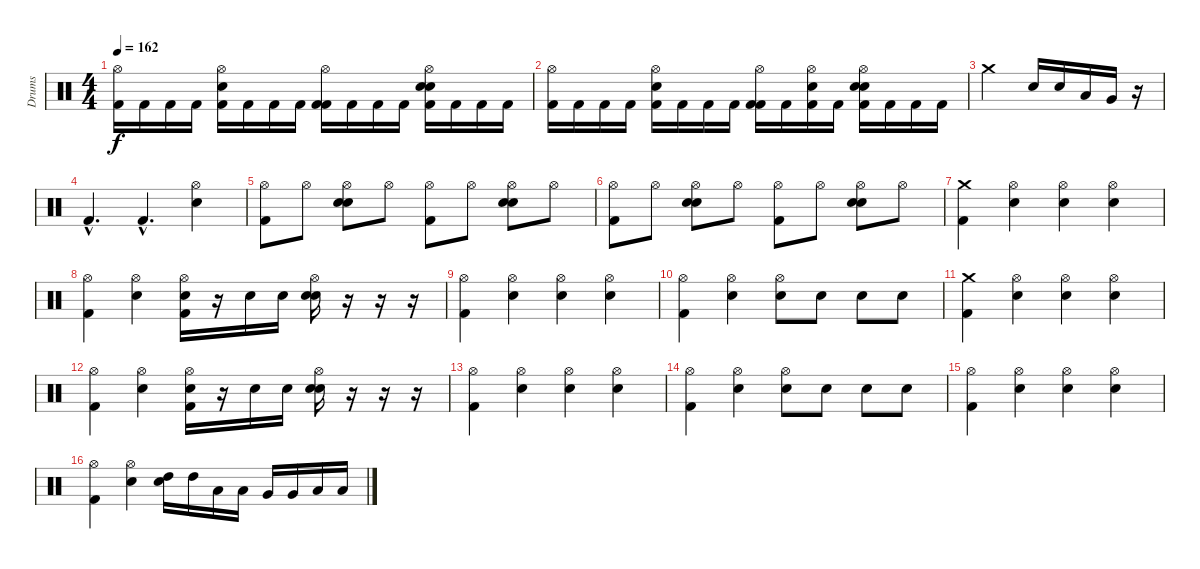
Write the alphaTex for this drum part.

\track ("Drums" "Drums") {instrument percussion}
\staff {score}
\articulation defaults
\ts (4 4)
\tempo 162
\clef neutral
\ks c
("Hi-Hat (open)" "Kick (hit) 2").16{dy f} "Kick (hit) 2".16 "Kick (hit) 2".16 "Kick (hit) 2".16 ("Kick (hit) 2" "Electric Snare (hit)" "Hi-Hat (open)").16 "Kick (hit) 2".16 "Kick (hit) 2".16 "Kick (hit) 2".16 ("Kick (hit) 2" "Hi-Hat (open)" "Kick (hit) 2").16 "Kick (hit) 2".16 "Kick (hit) 2".16 "Kick (hit) 2".16 ("Kick (hit) 2" "Electric Snare (hit)" "Hi-Hat (open)" "Snare (hit) 2").16 "Kick (hit) 2".16 "Kick (hit) 2".16 "Kick (hit) 2".16 |
("Hi-Hat (open)" "Kick (hit) 2").16 "Kick (hit) 2".16 "Kick (hit) 2".16 "Kick (hit) 2".16 ("Kick (hit) 2" "Electric Snare (hit)" "Hi-Hat (open)").16 "Kick (hit) 2".16 "Kick (hit) 2".16 "Kick (hit) 2".16 ("Kick (hit) 2" "Hi-Hat (open)" "Kick (hit) 2").16 "Kick (hit) 2".16 ("Kick (hit) 2" "Electric Snare (hit)" "Hi-Hat (open)").16 "Kick (hit) 2".16 ("Kick (hit) 2" "Electric Snare (hit)" "Hi-Hat (open)" "Snare (hit) 2").16 "Kick (hit) 2".16 "Kick (hit) 2".16 "Kick (hit) 2".16 |
"Crash medium (hit)".2 "Electric Snare (hit)".16 "Electric Snare (hit)".16 "Low Tom (hit)".16 "Very Low Tom (hit)".16 r.16 |
"Kick (hit) 2"{hac}.4{d} "Kick (hit) 2"{hac}.4{d} ("Hi-Hat (open)" "Electric Snare (hit)").4 |
("Hi-Hat (open)" "Kick (hit) 2").8 "Hi-Hat (open)".8 ("Electric Snare (hit)" "Hi-Hat (open)" "Snare (hit) 2").8 "Hi-Hat (open)".8 ("Hi-Hat (open)" "Kick (hit) 2").8 "Hi-Hat (open)".8 ("Electric Snare (hit)" "Hi-Hat (open)" "Snare (hit) 2").8 "Hi-Hat (open)".8 |
("Hi-Hat (open)" "Kick (hit) 2").8 "Hi-Hat (open)".8 ("Electric Snare (hit)" "Hi-Hat (open)" "Snare (hit) 2").8 "Hi-Hat (open)".8 ("Hi-Hat (open)" "Kick (hit) 2").8 "Hi-Hat (open)".8 ("Electric Snare (hit)" "Hi-Hat (open)" "Snare (hit) 2").8 "Hi-Hat (open)".8 |
("Crash medium (hit)" "Kick (hit) 2").4 ("Electric Snare (hit)" "Hi-Hat (open)").4 ("Hi-Hat (open)" "Snare (hit) 2").4 ("Electric Snare (hit)" "Hi-Hat (open)").4 |
("Hi-Hat (open)" "Kick (hit) 2").4 ("Hi-Hat (open)" "Electric Snare (hit)").4 ("Electric Snare (hit)" "Hi-Hat (open)" "Kick (hit) 2").16 r.16 "Snare (hit) 2".16 "Snare (hit) 2".16 ("Electric Snare (hit)" "Hi-Hat (open)" "Snare (hit) 2").16 r.16 r.16 r.16 |
("Hi-Hat (open)" "Kick (hit) 2").4 ("Electric Snare (hit)" "Hi-Hat (open)").4 ("Hi-Hat (open)" "Snare (hit) 2").4 ("Electric Snare (hit)" "Hi-Hat (open)").4 |
("Hi-Hat (open)" "Kick (hit) 2").4 ("Hi-Hat (open)" "Electric Snare (hit)").4 ("Hi-Hat (open)" "Snare (hit) 2").8 "Electric Snare (hit)".8 "Electric Snare (hit)".8 "Electric Snare (hit)".8 |
("Crash medium (hit)" "Kick (hit) 2").4 ("Electric Snare (hit)" "Hi-Hat (open)").4 ("Hi-Hat (open)" "Snare (hit) 2").4 ("Electric Snare (hit)" "Hi-Hat (open)").4 |
("Hi-Hat (open)" "Kick (hit) 2").4 ("Hi-Hat (open)" "Electric Snare (hit)").4 ("Electric Snare (hit)" "Hi-Hat (open)" "Kick (hit) 2").16 r.16 "Snare (hit) 2".16 "Snare (hit) 2".16 ("Electric Snare (hit)" "Hi-Hat (open)" "Snare (hit) 2").16 r.16 r.16 r.16 |
("Hi-Hat (open)" "Kick (hit) 2").4 ("Electric Snare (hit)" "Hi-Hat (open)").4 ("Hi-Hat (open)" "Snare (hit) 2").4 ("Electric Snare (hit)" "Hi-Hat (open)").4 |
("Hi-Hat (open)" "Kick (hit) 2").4 ("Hi-Hat (open)" "Electric Snare (hit)").4 ("Hi-Hat (open)" "Snare (hit) 2").8 "Electric Snare (hit)".8 "Electric Snare (hit)".8 "Electric Snare (hit)".8 |
("Hi-Hat (open)" "Kick (hit) 2").4 ("Electric Snare (hit)" "Hi-Hat (open)").4 ("Hi-Hat (open)" "Snare (hit) 2").4 ("Electric Snare (hit)" "Hi-Hat (open)").4 |
("Hi-Hat (open)" "Kick (hit) 2").4 ("Electric Snare (hit)" "Hi-Hat (open)").4 ("High Tom (hit)" "Snare (hit) 2").16 "High Tom (hit)".16 "Low Tom (hit)".16 "Low Tom (hit)".16 "Very Low Tom (hit)".16 "Very Low Tom (hit)".16 "Low Floor Tom (hit)".16 "Low Floor Tom (hit)".16
